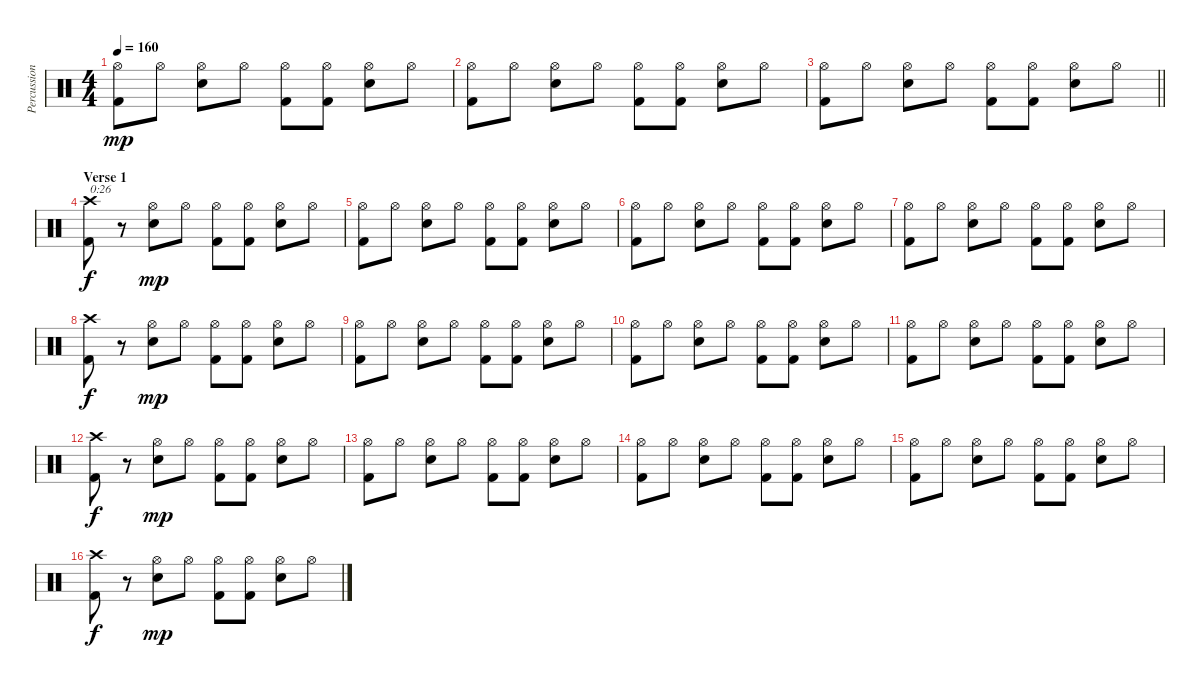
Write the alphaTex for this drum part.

\track ("Percussion - album" "Percussion") {mute instrument percussion}
\staff {score}
\articulation defaults
\ts (4 4)
\tempo 160
\clef neutral
\ks c
("Hi-Hat (open)" "Kick (hit) 2").8{dy mp} "Hi-Hat (open)".8 ("Hi-Hat (open)" "Snare (hit) 2").8 "Hi-Hat (open)".8 ("Hi-Hat (open)" "Kick (hit) 2").8 ("Hi-Hat (open)" "Kick (hit) 2").8 ("Hi-Hat (open)" "Snare (hit) 2").8 "Hi-Hat (open)".8 |
("Hi-Hat (open)" "Kick (hit) 2").8 "Hi-Hat (open)".8 ("Hi-Hat (open)" "Snare (hit) 2").8 "Hi-Hat (open)".8 ("Hi-Hat (open)" "Kick (hit) 2").8 ("Hi-Hat (open)" "Kick (hit) 2").8 ("Hi-Hat (open)" "Snare (hit) 2").8 "Hi-Hat (open)".8 |
\barLineRight lightlight
("Hi-Hat (open)" "Kick (hit) 2").8 "Hi-Hat (open)".8 ("Hi-Hat (open)" "Snare (hit) 2").8 "Hi-Hat (open)".8 ("Hi-Hat (open)" "Kick (hit) 2").8 ("Hi-Hat (open)" "Kick (hit) 2").8 ("Hi-Hat (open)" "Snare (hit) 2").8 "Hi-Hat (open)".8 |
\section ("" "Verse 1")
("Crash high (hit)" "Kick (hit) 2").8{txt "0:26" dy f} r.8 ("Hi-Hat (open)" "Snare (hit) 2").8{dy mp} "Hi-Hat (open)".8 ("Hi-Hat (open)" "Kick (hit) 2").8 ("Hi-Hat (open)" "Kick (hit) 2").8 ("Hi-Hat (open)" "Snare (hit) 2").8 "Hi-Hat (open)".8 |
("Hi-Hat (open)" "Kick (hit) 2").8 "Hi-Hat (open)".8 ("Hi-Hat (open)" "Snare (hit) 2").8 "Hi-Hat (open)".8 ("Hi-Hat (open)" "Kick (hit) 2").8 ("Hi-Hat (open)" "Kick (hit) 2").8 ("Hi-Hat (open)" "Snare (hit) 2").8 "Hi-Hat (open)".8 |
("Hi-Hat (open)" "Kick (hit) 2").8 "Hi-Hat (open)".8 ("Hi-Hat (open)" "Snare (hit) 2").8 "Hi-Hat (open)".8 ("Hi-Hat (open)" "Kick (hit) 2").8 ("Hi-Hat (open)" "Kick (hit) 2").8 ("Hi-Hat (open)" "Snare (hit) 2").8 "Hi-Hat (open)".8 |
("Hi-Hat (open)" "Kick (hit) 2").8 "Hi-Hat (open)".8 ("Hi-Hat (open)" "Snare (hit) 2").8 "Hi-Hat (open)".8 ("Hi-Hat (open)" "Kick (hit) 2").8 ("Hi-Hat (open)" "Kick (hit) 2").8 ("Hi-Hat (open)" "Snare (hit) 2").8 "Hi-Hat (open)".8 |
("Crash high (hit)" "Kick (hit) 2").8{dy f} r.8 ("Hi-Hat (open)" "Snare (hit) 2").8{dy mp} "Hi-Hat (open)".8 ("Hi-Hat (open)" "Kick (hit) 2").8 ("Hi-Hat (open)" "Kick (hit) 2").8 ("Hi-Hat (open)" "Snare (hit) 2").8 "Hi-Hat (open)".8 |
("Hi-Hat (open)" "Kick (hit) 2").8 "Hi-Hat (open)".8 ("Hi-Hat (open)" "Snare (hit) 2").8 "Hi-Hat (open)".8 ("Hi-Hat (open)" "Kick (hit) 2").8 ("Hi-Hat (open)" "Kick (hit) 2").8 ("Hi-Hat (open)" "Snare (hit) 2").8 "Hi-Hat (open)".8 |
("Hi-Hat (open)" "Kick (hit) 2").8 "Hi-Hat (open)".8 ("Hi-Hat (open)" "Snare (hit) 2").8 "Hi-Hat (open)".8 ("Hi-Hat (open)" "Kick (hit) 2").8 ("Hi-Hat (open)" "Kick (hit) 2").8 ("Hi-Hat (open)" "Snare (hit) 2").8 "Hi-Hat (open)".8 |
("Hi-Hat (open)" "Kick (hit) 2").8 "Hi-Hat (open)".8 ("Hi-Hat (open)" "Snare (hit) 2").8 "Hi-Hat (open)".8 ("Hi-Hat (open)" "Kick (hit) 2").8 ("Hi-Hat (open)" "Kick (hit) 2").8 ("Hi-Hat (open)" "Snare (hit) 2").8 "Hi-Hat (open)".8 |
("Crash high (hit)" "Kick (hit) 2").8{dy f} r.8 ("Hi-Hat (open)" "Snare (hit) 2").8{dy mp} "Hi-Hat (open)".8 ("Hi-Hat (open)" "Kick (hit) 2").8 ("Hi-Hat (open)" "Kick (hit) 2").8 ("Hi-Hat (open)" "Snare (hit) 2").8 "Hi-Hat (open)".8 |
("Hi-Hat (open)" "Kick (hit) 2").8 "Hi-Hat (open)".8 ("Hi-Hat (open)" "Snare (hit) 2").8 "Hi-Hat (open)".8 ("Hi-Hat (open)" "Kick (hit) 2").8 ("Hi-Hat (open)" "Kick (hit) 2").8 ("Hi-Hat (open)" "Snare (hit) 2").8 "Hi-Hat (open)".8 |
("Hi-Hat (open)" "Kick (hit) 2").8 "Hi-Hat (open)".8 ("Hi-Hat (open)" "Snare (hit) 2").8 "Hi-Hat (open)".8 ("Hi-Hat (open)" "Kick (hit) 2").8 ("Hi-Hat (open)" "Kick (hit) 2").8 ("Hi-Hat (open)" "Snare (hit) 2").8 "Hi-Hat (open)".8 |
("Hi-Hat (open)" "Kick (hit) 2").8 "Hi-Hat (open)".8 ("Hi-Hat (open)" "Snare (hit) 2").8 "Hi-Hat (open)".8 ("Hi-Hat (open)" "Kick (hit) 2").8 ("Hi-Hat (open)" "Kick (hit) 2").8 ("Hi-Hat (open)" "Snare (hit) 2").8 "Hi-Hat (open)".8 |
("Crash high (hit)" "Kick (hit) 2").8{dy f} r.8 ("Hi-Hat (open)" "Snare (hit) 2").8{dy mp} "Hi-Hat (open)".8 ("Hi-Hat (open)" "Kick (hit) 2").8 ("Hi-Hat (open)" "Kick (hit) 2").8 ("Hi-Hat (open)" "Snare (hit) 2").8 "Hi-Hat (open)".8
